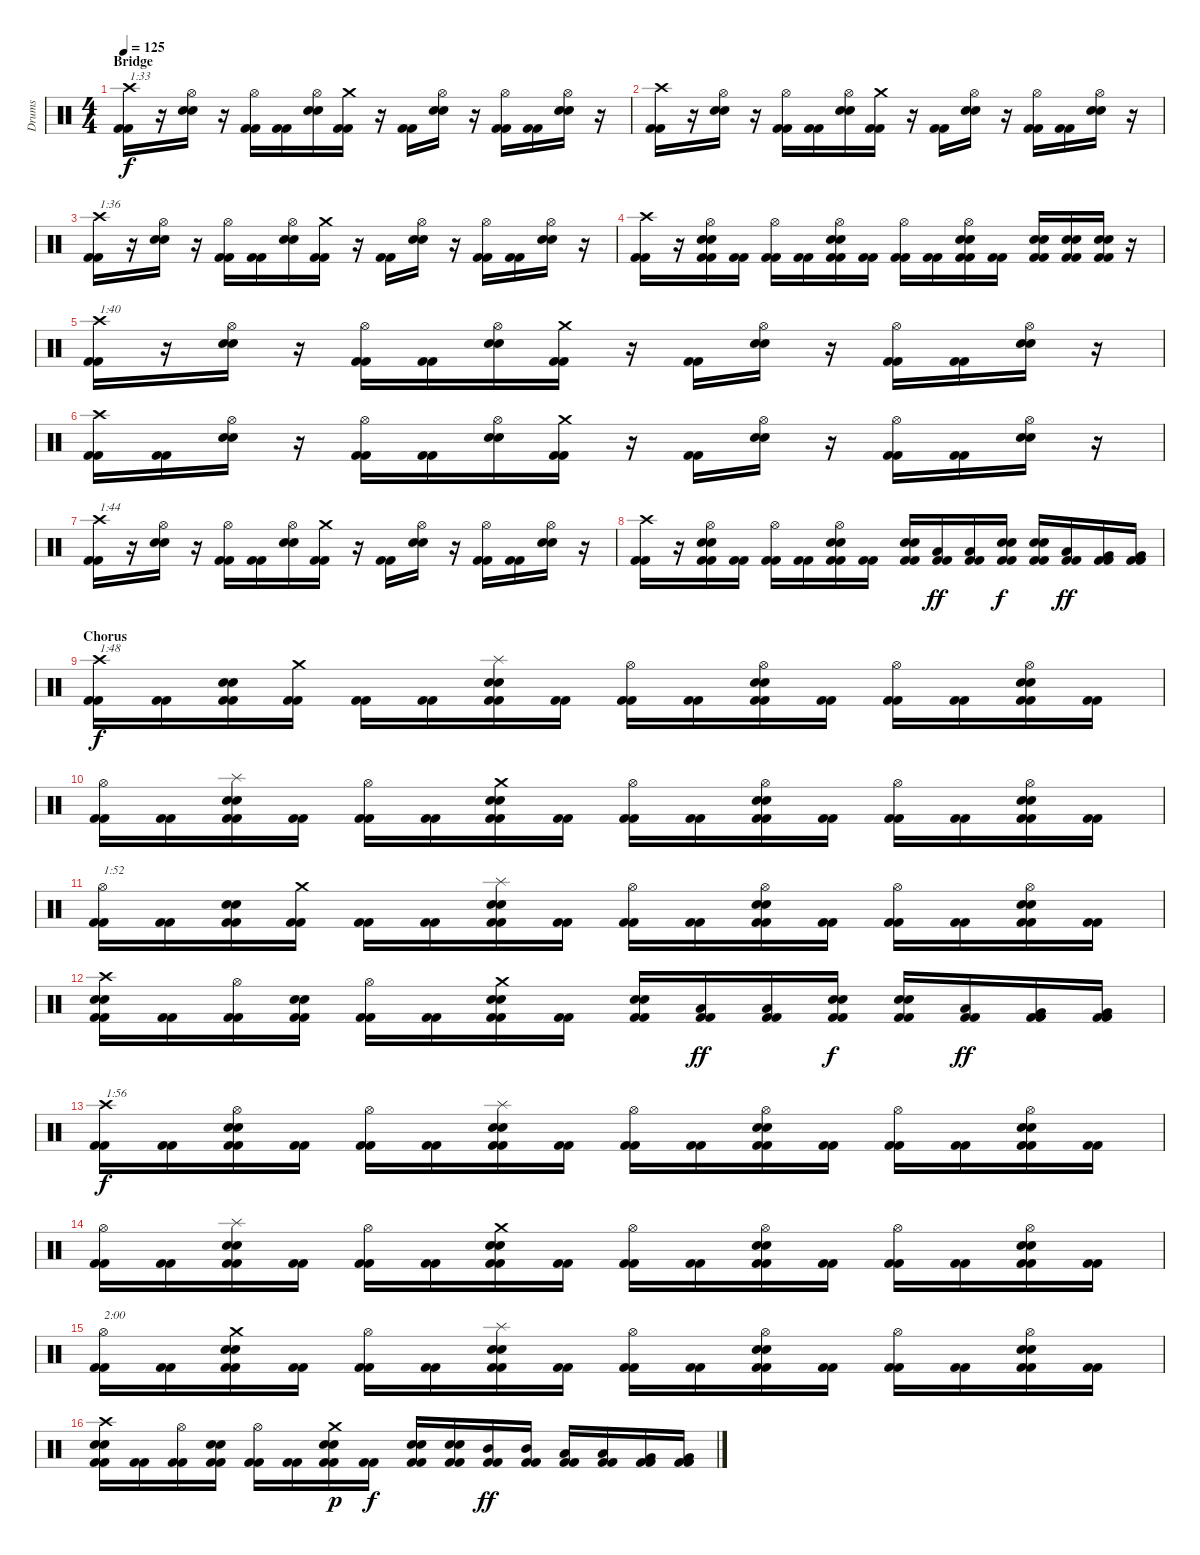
\track ("Drums" "Drums") {instrument percussion}
\staff {score}
\articulation defaults
\ts (4 4)
\section ("" "Bridge")
\tempo 125
\clef neutral
\ks c
("Crash high (hit)" "Kick (hit) 2" "Kick (hit) 2").16{txt "1:33" dy f} r.16 ("Hi-Hat (open)" "Snare (hit) 2" "Snare (hit) 2").16 r.16 ("Hi-Hat (open)" "Kick (hit) 2" "Kick (hit) 2").16 ("Kick (hit) 2" "Kick (hit) 2").16 ("Hi-Hat (open)" "Snare (hit) 2" "Snare (hit) 2").16 ("Crash medium (hit)" "Kick (hit) 2" "Kick (hit) 2").16 r.16 ("Kick (hit) 2" "Kick (hit) 2").16 ("Hi-Hat (open)" "Snare (hit) 2" "Snare (hit) 2").16 r.16 ("Hi-Hat (open)" "Kick (hit) 2" "Kick (hit) 2").16 ("Kick (hit) 2" "Kick (hit) 2").16 ("Hi-Hat (open)" "Snare (hit) 2" "Snare (hit) 2").16 r.16 |
("Crash high (hit)" "Kick (hit) 2" "Kick (hit) 2").16 r.16 ("Hi-Hat (open)" "Snare (hit) 2" "Snare (hit) 2").16 r.16 ("Hi-Hat (open)" "Kick (hit) 2" "Kick (hit) 2").16 ("Kick (hit) 2" "Kick (hit) 2").16 ("Hi-Hat (open)" "Snare (hit) 2" "Snare (hit) 2").16 ("Crash medium (hit)" "Kick (hit) 2" "Kick (hit) 2").16 r.16 ("Kick (hit) 2" "Kick (hit) 2").16 ("Hi-Hat (open)" "Snare (hit) 2" "Snare (hit) 2").16 r.16 ("Hi-Hat (open)" "Kick (hit) 2" "Kick (hit) 2").16 ("Kick (hit) 2" "Kick (hit) 2").16 ("Hi-Hat (open)" "Snare (hit) 2" "Snare (hit) 2").16 r.16 |
("Crash high (hit)" "Kick (hit) 2" "Kick (hit) 2").16{txt "1:36"} r.16 ("Hi-Hat (open)" "Snare (hit) 2" "Snare (hit) 2").16 r.16 ("Hi-Hat (open)" "Kick (hit) 2" "Kick (hit) 2").16 ("Kick (hit) 2" "Kick (hit) 2").16 ("Hi-Hat (open)" "Snare (hit) 2" "Snare (hit) 2").16 ("Crash medium (hit)" "Kick (hit) 2" "Kick (hit) 2").16 r.16 ("Kick (hit) 2" "Kick (hit) 2").16 ("Hi-Hat (open)" "Snare (hit) 2" "Snare (hit) 2").16 r.16 ("Hi-Hat (open)" "Kick (hit) 2" "Kick (hit) 2").16 ("Kick (hit) 2" "Kick (hit) 2").16 ("Hi-Hat (open)" "Snare (hit) 2" "Snare (hit) 2").16 r.16 |
("Crash high (hit)" "Kick (hit) 2" "Kick (hit) 2").16 r.16 ("Hi-Hat (open)" "Snare (hit) 2" "Snare (hit) 2" "Kick (hit) 2" "Kick (hit) 2").16 ("Kick (hit) 2" "Kick (hit) 2").16 ("Hi-Hat (open)" "Kick (hit) 2" "Kick (hit) 2").16 ("Kick (hit) 2" "Kick (hit) 2").16 ("Hi-Hat (open)" "Snare (hit) 2" "Snare (hit) 2" "Kick (hit) 2" "Kick (hit) 2").16 ("Kick (hit) 2" "Kick (hit) 2").16 ("Hi-Hat (open)" "Kick (hit) 2" "Kick (hit) 2").16 ("Kick (hit) 2" "Kick (hit) 2").16 ("Hi-Hat (open)" "Snare (hit) 2" "Snare (hit) 2" "Kick (hit) 2" "Kick (hit) 2").16 ("Kick (hit) 2" "Kick (hit) 2").16 ("Snare (hit) 2" "Snare (hit) 2" "Kick (hit) 2" "Kick (hit) 2").16 ("Snare (hit) 2" "Snare (hit) 2" "Kick (hit) 2" "Kick (hit) 2").16 ("Snare (hit) 2" "Snare (hit) 2" "Kick (hit) 2" "Kick (hit) 2").16 r.16 |
("Crash high (hit)" "Kick (hit) 2" "Kick (hit) 2").16{txt "1:40"} r.16 ("Hi-Hat (open)" "Snare (hit) 2" "Snare (hit) 2").16 r.16 ("Hi-Hat (open)" "Kick (hit) 2" "Kick (hit) 2").16 ("Kick (hit) 2" "Kick (hit) 2").16 ("Hi-Hat (open)" "Snare (hit) 2" "Snare (hit) 2").16 ("Crash medium (hit)" "Kick (hit) 2" "Kick (hit) 2").16 r.16 ("Kick (hit) 2" "Kick (hit) 2").16 ("Hi-Hat (open)" "Snare (hit) 2" "Snare (hit) 2").16 r.16 ("Hi-Hat (open)" "Kick (hit) 2" "Kick (hit) 2").16 ("Kick (hit) 2" "Kick (hit) 2").16 ("Hi-Hat (open)" "Snare (hit) 2" "Snare (hit) 2").16 r.16 |
("Crash high (hit)" "Kick (hit) 2" "Kick (hit) 2").16 ("Kick (hit) 2" "Kick (hit) 2").16 ("Hi-Hat (open)" "Snare (hit) 2" "Snare (hit) 2").16 r.16 ("Hi-Hat (open)" "Kick (hit) 2" "Kick (hit) 2").16 ("Kick (hit) 2" "Kick (hit) 2").16 ("Hi-Hat (open)" "Snare (hit) 2" "Snare (hit) 2").16 ("Crash medium (hit)" "Kick (hit) 2" "Kick (hit) 2").16 r.16 ("Kick (hit) 2" "Kick (hit) 2").16 ("Hi-Hat (open)" "Snare (hit) 2" "Snare (hit) 2").16 r.16 ("Hi-Hat (open)" "Kick (hit) 2" "Kick (hit) 2").16 ("Kick (hit) 2" "Kick (hit) 2").16 ("Hi-Hat (open)" "Snare (hit) 2" "Snare (hit) 2").16 r.16 |
("Crash high (hit)" "Kick (hit) 2" "Kick (hit) 2").16{txt "1:44"} r.16 ("Hi-Hat (open)" "Snare (hit) 2" "Snare (hit) 2").16 r.16 ("Hi-Hat (open)" "Kick (hit) 2" "Kick (hit) 2").16 ("Kick (hit) 2" "Kick (hit) 2").16 ("Hi-Hat (open)" "Snare (hit) 2" "Snare (hit) 2").16 ("Crash medium (hit)" "Kick (hit) 2" "Kick (hit) 2").16 r.16 ("Kick (hit) 2" "Kick (hit) 2").16 ("Hi-Hat (open)" "Snare (hit) 2" "Snare (hit) 2").16 r.16 ("Hi-Hat (open)" "Kick (hit) 2" "Kick (hit) 2").16 ("Kick (hit) 2" "Kick (hit) 2").16 ("Hi-Hat (open)" "Snare (hit) 2" "Snare (hit) 2").16 r.16 |
("Crash high (hit)" "Kick (hit) 2" "Kick (hit) 2").16 r.16 ("Hi-Hat (open)" "Snare (hit) 2" "Snare (hit) 2" "Kick (hit) 2" "Kick (hit) 2").16 ("Kick (hit) 2" "Kick (hit) 2").16 ("Hi-Hat (open)" "Kick (hit) 2" "Kick (hit) 2").16 ("Kick (hit) 2" "Kick (hit) 2").16 ("Hi-Hat (open)" "Snare (hit) 2" "Snare (hit) 2" "Kick (hit) 2" "Kick (hit) 2").16 ("Kick (hit) 2" "Kick (hit) 2").16 ("Snare (hit) 2" "Snare (hit) 2" "Kick (hit) 2" "Kick (hit) 2").16 ("Low Tom (hit)" "Kick (hit) 2" "Kick (hit) 2").16{dy ff} ("Low Tom (hit)" "Kick (hit) 2" "Kick (hit) 2").16 ("Snare (hit) 2" "Snare (hit) 2" "Kick (hit) 2" "Kick (hit) 2").16{dy f} ("Snare (hit) 2" "Snare (hit) 2" "Kick (hit) 2" "Kick (hit) 2").16 ("Low Tom (hit)" "Kick (hit) 2" "Kick (hit) 2").16{dy ff} ("Very Low Tom (hit)" "Kick (hit) 2" "Kick (hit) 2").16 ("Very Low Tom (hit)" "Kick (hit) 2" "Kick (hit) 2").16 |
\section ("" "Chorus")
("Crash high (hit)" "Kick (hit) 2" "Kick (hit) 2").16{txt "1:48" dy f} ("Kick (hit) 2" "Kick (hit) 2").16 ("Snare (hit) 2" "Snare (hit) 2" "Kick (hit) 2" "Kick (hit) 2").16 ("Crash medium (hit)" "Kick (hit) 2" "Kick (hit) 2").16 ("Kick (hit) 2" "Kick (hit) 2").16 ("Kick (hit) 2" "Kick (hit) 2").16 ("Splash (hit)" "Snare (hit) 2" "Snare (hit) 2" "Kick (hit) 2" "Kick (hit) 2").16 ("Kick (hit) 2" "Kick (hit) 2").16 ("Hi-Hat (open)" "Kick (hit) 2" "Kick (hit) 2").16 ("Kick (hit) 2" "Kick (hit) 2").16 ("Hi-Hat (open)" "Snare (hit) 2" "Snare (hit) 2" "Kick (hit) 2" "Kick (hit) 2").16 ("Kick (hit) 2" "Kick (hit) 2").16 ("Hi-Hat (open)" "Kick (hit) 2" "Kick (hit) 2").16 ("Kick (hit) 2" "Kick (hit) 2").16 ("Hi-Hat (open)" "Snare (hit) 2" "Snare (hit) 2" "Kick (hit) 2" "Kick (hit) 2").16 ("Kick (hit) 2" "Kick (hit) 2").16 |
("Hi-Hat (open)" "Kick (hit) 2" "Kick (hit) 2").16 ("Kick (hit) 2" "Kick (hit) 2").16 ("Splash (hit)" "Snare (hit) 2" "Snare (hit) 2" "Kick (hit) 2" "Kick (hit) 2").16 ("Kick (hit) 2" "Kick (hit) 2").16 ("Hi-Hat (open)" "Kick (hit) 2" "Kick (hit) 2").16 ("Kick (hit) 2" "Kick (hit) 2").16 ("Crash medium (hit)" "Snare (hit) 2" "Snare (hit) 2" "Kick (hit) 2" "Kick (hit) 2").16 ("Kick (hit) 2" "Kick (hit) 2").16 ("Hi-Hat (open)" "Kick (hit) 2" "Kick (hit) 2").16 ("Kick (hit) 2" "Kick (hit) 2").16 ("Hi-Hat (open)" "Snare (hit) 2" "Snare (hit) 2" "Kick (hit) 2" "Kick (hit) 2").16 ("Kick (hit) 2" "Kick (hit) 2").16 ("Hi-Hat (open)" "Kick (hit) 2" "Kick (hit) 2").16 ("Kick (hit) 2" "Kick (hit) 2").16 ("Hi-Hat (open)" "Snare (hit) 2" "Snare (hit) 2" "Kick (hit) 2" "Kick (hit) 2").16 ("Kick (hit) 2" "Kick (hit) 2").16 |
("Hi-Hat (open)" "Kick (hit) 2" "Kick (hit) 2").16{txt "1:52"} ("Kick (hit) 2" "Kick (hit) 2").16 ("Snare (hit) 2" "Snare (hit) 2" "Kick (hit) 2" "Kick (hit) 2").16 ("Crash medium (hit)" "Kick (hit) 2" "Kick (hit) 2").16 ("Kick (hit) 2" "Kick (hit) 2").16 ("Kick (hit) 2" "Kick (hit) 2").16 ("Splash (hit)" "Snare (hit) 2" "Snare (hit) 2" "Kick (hit) 2" "Kick (hit) 2").16 ("Kick (hit) 2" "Kick (hit) 2").16 ("Hi-Hat (open)" "Kick (hit) 2" "Kick (hit) 2").16 ("Kick (hit) 2" "Kick (hit) 2").16 ("Hi-Hat (open)" "Snare (hit) 2" "Snare (hit) 2" "Kick (hit) 2" "Kick (hit) 2").16 ("Kick (hit) 2" "Kick (hit) 2").16 ("Hi-Hat (open)" "Kick (hit) 2" "Kick (hit) 2").16 ("Kick (hit) 2" "Kick (hit) 2").16 ("Hi-Hat (open)" "Snare (hit) 2" "Snare (hit) 2" "Kick (hit) 2" "Kick (hit) 2").16 ("Kick (hit) 2" "Kick (hit) 2").16 |
("Crash high (hit)" "Snare (hit) 2" "Snare (hit) 2" "Kick (hit) 2" "Kick (hit) 2").16 ("Kick (hit) 2" "Kick (hit) 2").16 ("Hi-Hat (open)" "Kick (hit) 2" "Kick (hit) 2").16 ("Snare (hit) 2" "Snare (hit) 2" "Kick (hit) 2" "Kick (hit) 2").16 ("Hi-Hat (open)" "Kick (hit) 2" "Kick (hit) 2").16 ("Kick (hit) 2" "Kick (hit) 2").16 ("Crash medium (hit)" "Snare (hit) 2" "Snare (hit) 2" "Kick (hit) 2" "Kick (hit) 2").16 ("Kick (hit) 2" "Kick (hit) 2").16 ("Snare (hit) 2" "Snare (hit) 2" "Kick (hit) 2" "Kick (hit) 2").16 ("Low Tom (hit)" "Kick (hit) 2" "Kick (hit) 2").16{dy ff} ("Low Tom (hit)" "Kick (hit) 2" "Kick (hit) 2").16 ("Snare (hit) 2" "Snare (hit) 2" "Kick (hit) 2" "Kick (hit) 2").16{dy f} ("Snare (hit) 2" "Snare (hit) 2" "Kick (hit) 2" "Kick (hit) 2").16 ("Low Tom (hit)" "Kick (hit) 2" "Kick (hit) 2").16{dy ff} ("Very Low Tom (hit)" "Kick (hit) 2" "Kick (hit) 2").16 ("Very Low Tom (hit)" "Kick (hit) 2" "Kick (hit) 2").16 |
("Crash high (hit)" "Kick (hit) 2" "Kick (hit) 2").16{txt "1:56" dy f} ("Kick (hit) 2" "Kick (hit) 2").16 ("Hi-Hat (open)" "Snare (hit) 2" "Snare (hit) 2" "Kick (hit) 2" "Kick (hit) 2").16 ("Kick (hit) 2" "Kick (hit) 2").16 ("Hi-Hat (open)" "Kick (hit) 2" "Kick (hit) 2").16 ("Kick (hit) 2" "Kick (hit) 2").16 ("Splash (hit)" "Snare (hit) 2" "Snare (hit) 2" "Kick (hit) 2" "Kick (hit) 2").16 ("Kick (hit) 2" "Kick (hit) 2").16 ("Hi-Hat (open)" "Kick (hit) 2" "Kick (hit) 2").16 ("Kick (hit) 2" "Kick (hit) 2").16 ("Hi-Hat (open)" "Snare (hit) 2" "Snare (hit) 2" "Kick (hit) 2" "Kick (hit) 2").16 ("Kick (hit) 2" "Kick (hit) 2").16 ("Hi-Hat (open)" "Kick (hit) 2" "Kick (hit) 2").16 ("Kick (hit) 2" "Kick (hit) 2").16 ("Hi-Hat (open)" "Snare (hit) 2" "Snare (hit) 2" "Kick (hit) 2" "Kick (hit) 2").16 ("Kick (hit) 2" "Kick (hit) 2").16 |
("Hi-Hat (open)" "Kick (hit) 2" "Kick (hit) 2").16 ("Kick (hit) 2" "Kick (hit) 2").16 ("Splash (hit)" "Snare (hit) 2" "Snare (hit) 2" "Kick (hit) 2" "Kick (hit) 2").16 ("Kick (hit) 2" "Kick (hit) 2").16 ("Hi-Hat (open)" "Kick (hit) 2" "Kick (hit) 2").16 ("Kick (hit) 2" "Kick (hit) 2").16 ("Crash medium (hit)" "Snare (hit) 2" "Snare (hit) 2" "Kick (hit) 2" "Kick (hit) 2").16 ("Kick (hit) 2" "Kick (hit) 2").16 ("Hi-Hat (open)" "Kick (hit) 2" "Kick (hit) 2").16 ("Kick (hit) 2" "Kick (hit) 2").16 ("Hi-Hat (open)" "Snare (hit) 2" "Snare (hit) 2" "Kick (hit) 2" "Kick (hit) 2").16 ("Kick (hit) 2" "Kick (hit) 2").16 ("Hi-Hat (open)" "Kick (hit) 2" "Kick (hit) 2").16 ("Kick (hit) 2" "Kick (hit) 2").16 ("Hi-Hat (open)" "Snare (hit) 2" "Snare (hit) 2" "Kick (hit) 2" "Kick (hit) 2").16 ("Kick (hit) 2" "Kick (hit) 2").16 |
("Hi-Hat (open)" "Kick (hit) 2" "Kick (hit) 2").16{txt "2:00"} ("Kick (hit) 2" "Kick (hit) 2").16 ("Crash medium (hit)" "Snare (hit) 2" "Snare (hit) 2" "Kick (hit) 2" "Kick (hit) 2").16 ("Kick (hit) 2" "Kick (hit) 2").16 ("Hi-Hat (open)" "Kick (hit) 2" "Kick (hit) 2").16 ("Kick (hit) 2" "Kick (hit) 2").16 ("Splash (hit)" "Snare (hit) 2" "Snare (hit) 2" "Kick (hit) 2" "Kick (hit) 2").16 ("Kick (hit) 2" "Kick (hit) 2").16 ("Hi-Hat (open)" "Kick (hit) 2" "Kick (hit) 2").16 ("Kick (hit) 2" "Kick (hit) 2").16 ("Hi-Hat (open)" "Snare (hit) 2" "Snare (hit) 2" "Kick (hit) 2" "Kick (hit) 2").16 ("Kick (hit) 2" "Kick (hit) 2").16 ("Hi-Hat (open)" "Kick (hit) 2" "Kick (hit) 2").16 ("Kick (hit) 2" "Kick (hit) 2").16 ("Hi-Hat (open)" "Snare (hit) 2" "Snare (hit) 2" "Kick (hit) 2" "Kick (hit) 2").16 ("Kick (hit) 2" "Kick (hit) 2").16 |
("Crash high (hit)" "Snare (hit) 2" "Snare (hit) 2" "Kick (hit) 2" "Kick (hit) 2").16 ("Kick (hit) 2" "Kick (hit) 2").16 ("Hi-Hat (open)" "Kick (hit) 2" "Kick (hit) 2").16 ("Snare (hit) 2" "Snare (hit) 2" "Kick (hit) 2" "Kick (hit) 2").16 ("Hi-Hat (open)" "Kick (hit) 2" "Kick (hit) 2").16 ("Kick (hit) 2" "Kick (hit) 2").16 ("Crash medium (hit)" "Snare (hit) 2" "Snare (hit) 2" "Kick (hit) 2" "Kick (hit) 2").16{dy p} ("Kick (hit) 2" "Kick (hit) 2").16{dy f} ("Snare (hit) 2" "Snare (hit) 2" "Kick (hit) 2" "Kick (hit) 2").16 ("Snare (hit) 2" "Snare (hit) 2" "Kick (hit) 2" "Kick (hit) 2").16 ("Mid Tom (hit)" "Kick (hit) 2" "Kick (hit) 2").16{dy ff} ("Mid Tom (hit)" "Kick (hit) 2" "Kick (hit) 2").16 ("Low Tom (hit)" "Kick (hit) 2" "Kick (hit) 2").16 ("Low Tom (hit)" "Kick (hit) 2" "Kick (hit) 2").16 ("Very Low Tom (hit)" "Kick (hit) 2" "Kick (hit) 2").16 ("Very Low Tom (hit)" "Kick (hit) 2" "Kick (hit) 2").16
